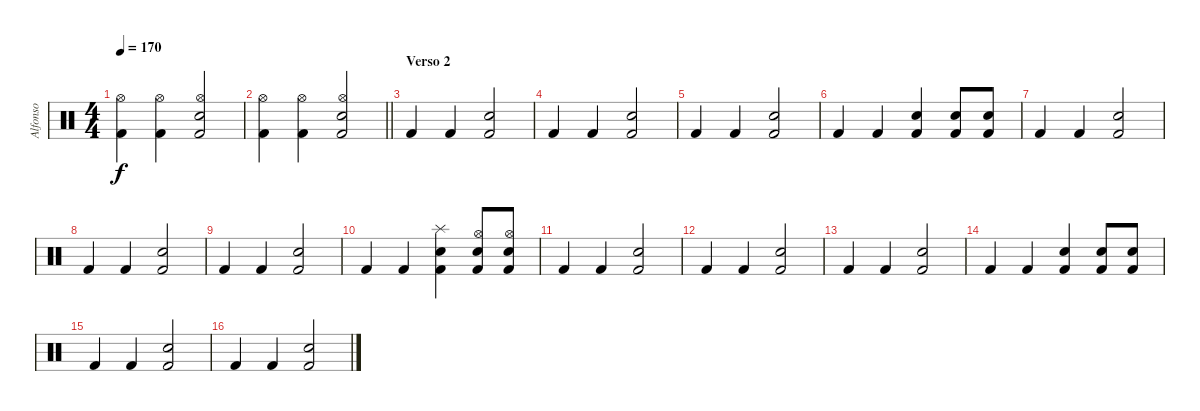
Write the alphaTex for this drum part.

\track ("Alfonso" "Alfonso") {instrument percussion}
\staff {score}
\articulation defaults
\ts (4 4)
\tempo 170
\clef neutral
\ks c
("Kick (hit) 2" "Hi-Hat (open)").4{dy f} ("Kick (hit) 2" "Hi-Hat (open)").4 ("Kick (hit) 2" "Snare (hit) 2" "Hi-Hat (open)").2 |
\barLineRight lightlight
("Kick (hit) 2" "Hi-Hat (open)").4 ("Kick (hit) 2" "Hi-Hat (open)").4 ("Kick (hit) 2" "Snare (hit) 2" "Hi-Hat (open)").2 |
\section ("" "Verso 2")
"Kick (hit) 2".4 "Kick (hit) 2".4 ("Kick (hit) 2" "Snare (hit) 2").2 |
"Kick (hit) 2".4 "Kick (hit) 2".4 ("Kick (hit) 2" "Snare (hit) 2").2 |
"Kick (hit) 2".4 "Kick (hit) 2".4 ("Kick (hit) 2" "Snare (hit) 2").2 |
"Kick (hit) 2".4 "Kick (hit) 2".4 ("Kick (hit) 2" "Snare (hit) 2").4 ("Kick (hit) 2" "Snare (hit) 2").8 ("Kick (hit) 2" "Snare (hit) 2").8 |
"Kick (hit) 2".4 "Kick (hit) 2".4 ("Kick (hit) 2" "Snare (hit) 2").2 |
"Kick (hit) 2".4 "Kick (hit) 2".4 ("Kick (hit) 2" "Snare (hit) 2").2 |
"Kick (hit) 2".4 "Kick (hit) 2".4 ("Kick (hit) 2" "Snare (hit) 2").2 |
"Kick (hit) 2".4 "Kick (hit) 2".4 ("Kick (hit) 2" "Snare (hit) 2" "Splash (hit)").4 ("Kick (hit) 2" "Snare (hit) 2" "Hi-Hat (open)").8 ("Kick (hit) 2" "Snare (hit) 2" "Hi-Hat (open)").8 |
"Kick (hit) 2".4 "Kick (hit) 2".4 ("Kick (hit) 2" "Snare (hit) 2").2 |
"Kick (hit) 2".4 "Kick (hit) 2".4 ("Kick (hit) 2" "Snare (hit) 2").2 |
"Kick (hit) 2".4 "Kick (hit) 2".4 ("Kick (hit) 2" "Snare (hit) 2").2 |
"Kick (hit) 2".4 "Kick (hit) 2".4 ("Kick (hit) 2" "Snare (hit) 2").4 ("Kick (hit) 2" "Snare (hit) 2").8 ("Kick (hit) 2" "Snare (hit) 2").8 |
"Kick (hit) 2".4 "Kick (hit) 2".4 ("Kick (hit) 2" "Snare (hit) 2").2 |
"Kick (hit) 2".4 "Kick (hit) 2".4 ("Kick (hit) 2" "Snare (hit) 2").2
